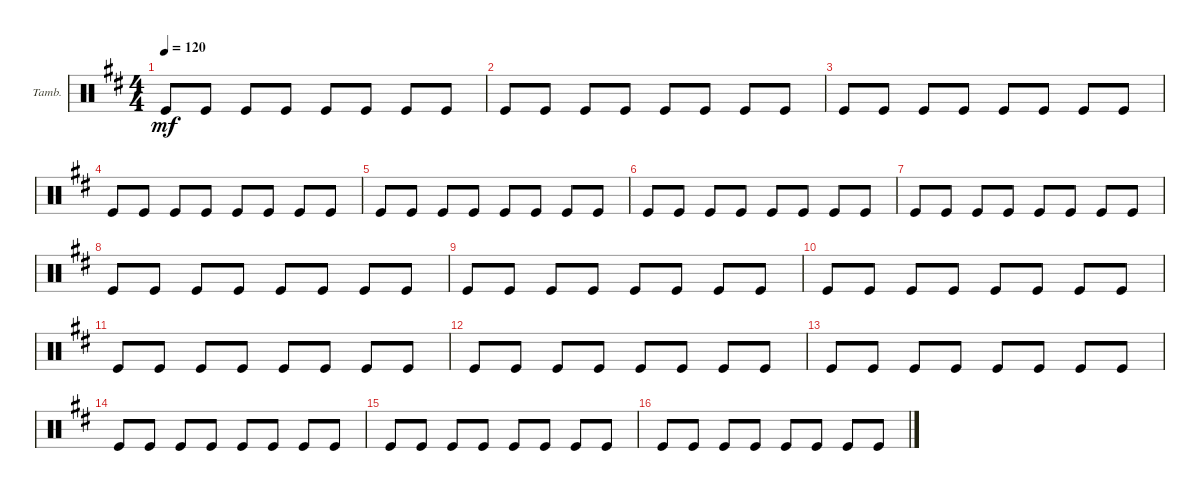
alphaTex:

\defaultSystemsLayout 4
\bracketExtendMode groupsimilarinstruments
\firstSystemTrackNameOrientation horizontal
\otherSystemsTrackNameOrientation horizontal
\track ("Tambourine" "Tamb.") {instrument percussion}
\staff {score}
\articulation defaults
\ts (4 4)
\tempo 120
\clef neutral
\ks d "Kick (hit)".8{dy mf} "Kick (hit)".8 "Kick (hit)".8 "Kick (hit)".8 "Kick (hit)".8 "Kick (hit)".8 "Kick (hit)".8 "Kick (hit)".8
|
"Kick (hit)".8 "Kick (hit)".8 "Kick (hit)".8 "Kick (hit)".8 "Kick (hit)".8 "Kick (hit)".8 "Kick (hit)".8 "Kick (hit)".8 |
"Kick (hit)".8 "Kick (hit)".8 "Kick (hit)".8 "Kick (hit)".8 "Kick (hit)".8 "Kick (hit)".8 "Kick (hit)".8 "Kick (hit)".8 |
"Kick (hit)".8 "Kick (hit)".8 "Kick (hit)".8 "Kick (hit)".8 "Kick (hit)".8 "Kick (hit)".8 "Kick (hit)".8 "Kick (hit)".8 |
"Kick (hit)".8 "Kick (hit)".8 "Kick (hit)".8 "Kick (hit)".8 "Kick (hit)".8 "Kick (hit)".8 "Kick (hit)".8 "Kick (hit)".8 |
"Kick (hit)".8 "Kick (hit)".8 "Kick (hit)".8 "Kick (hit)".8 "Kick (hit)".8 "Kick (hit)".8 "Kick (hit)".8 "Kick (hit)".8 |
"Kick (hit)".8 "Kick (hit)".8 "Kick (hit)".8 "Kick (hit)".8 "Kick (hit)".8 "Kick (hit)".8 "Kick (hit)".8 "Kick (hit)".8 |
"Kick (hit)".8 "Kick (hit)".8 "Kick (hit)".8 "Kick (hit)".8 "Kick (hit)".8 "Kick (hit)".8 "Kick (hit)".8 "Kick (hit)".8 |
"Kick (hit)".8 "Kick (hit)".8 "Kick (hit)".8 "Kick (hit)".8 "Kick (hit)".8 "Kick (hit)".8 "Kick (hit)".8 "Kick (hit)".8 |
"Kick (hit)".8 "Kick (hit)".8 "Kick (hit)".8 "Kick (hit)".8 "Kick (hit)".8 "Kick (hit)".8 "Kick (hit)".8 "Kick (hit)".8 |
"Kick (hit)".8 "Kick (hit)".8 "Kick (hit)".8 "Kick (hit)".8 "Kick (hit)".8 "Kick (hit)".8 "Kick (hit)".8 "Kick (hit)".8 |
"Kick (hit)".8 "Kick (hit)".8 "Kick (hit)".8 "Kick (hit)".8 "Kick (hit)".8 "Kick (hit)".8 "Kick (hit)".8 "Kick (hit)".8 |
"Kick (hit)".8 "Kick (hit)".8 "Kick (hit)".8 "Kick (hit)".8 "Kick (hit)".8 "Kick (hit)".8 "Kick (hit)".8 "Kick (hit)".8 |
"Kick (hit)".8 "Kick (hit)".8 "Kick (hit)".8 "Kick (hit)".8 "Kick (hit)".8 "Kick (hit)".8 "Kick (hit)".8 "Kick (hit)".8 |
"Kick (hit)".8 "Kick (hit)".8 "Kick (hit)".8 "Kick (hit)".8 "Kick (hit)".8 "Kick (hit)".8 "Kick (hit)".8 "Kick (hit)".8 |
"Kick (hit)".8 "Kick (hit)".8 "Kick (hit)".8 "Kick (hit)".8 "Kick (hit)".8 "Kick (hit)".8 "Kick (hit)".8 "Kick (hit)".8
